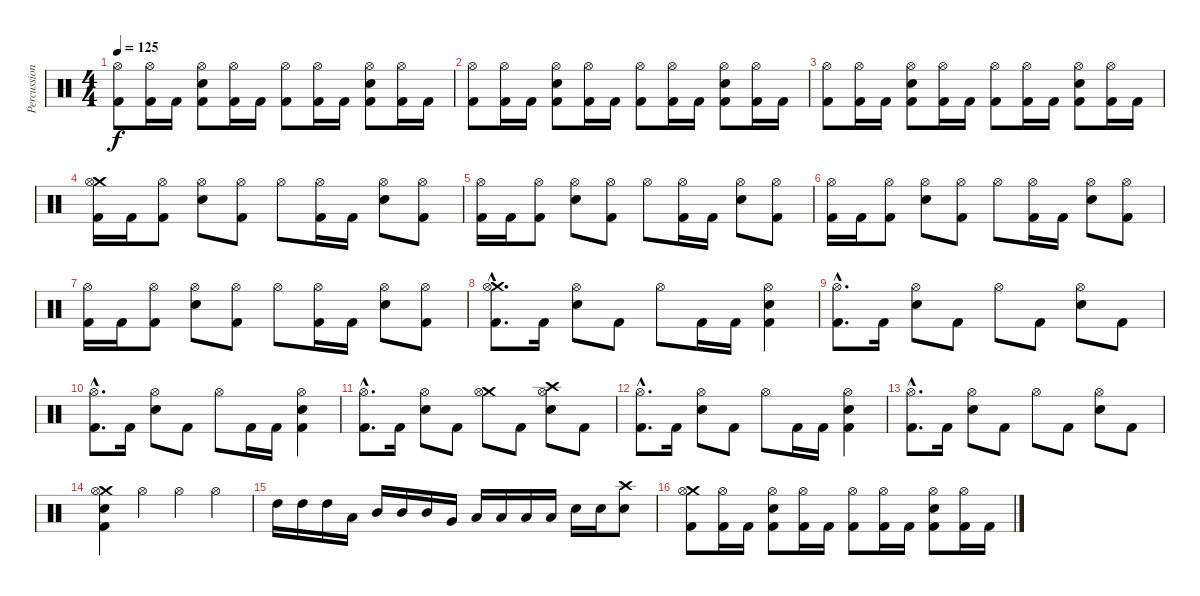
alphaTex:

\track ("Percussion" "Percussion") {instrument percussion}
\staff {score}
\articulation defaults
\ts (4 4)
\tempo 125
\clef neutral
\ks c
("Hi-Hat (open)" "Kick (hit) 2").8{dy f} ("Hi-Hat (open)" "Kick (hit) 2").16 "Kick (hit) 2".16 ("Hi-Hat (open)" "Electric Snare (hit)" "Kick (hit) 2").8 ("Hi-Hat (open)" "Kick (hit) 2").16 "Kick (hit) 2".16 ("Hi-Hat (open)" "Kick (hit) 2").8 ("Hi-Hat (open)" "Kick (hit) 2").16 "Kick (hit) 2".16 ("Hi-Hat (open)" "Electric Snare (hit)" "Kick (hit) 2").8 ("Hi-Hat (open)" "Kick (hit) 2").16 "Kick (hit) 2".16 |
("Hi-Hat (open)" "Kick (hit) 2").8 ("Hi-Hat (open)" "Kick (hit) 2").16 "Kick (hit) 2".16 ("Hi-Hat (open)" "Electric Snare (hit)" "Kick (hit) 2").8 ("Hi-Hat (open)" "Kick (hit) 2").16 "Kick (hit) 2".16 ("Hi-Hat (open)" "Kick (hit) 2").8 ("Hi-Hat (open)" "Kick (hit) 2").16 "Kick (hit) 2".16 ("Hi-Hat (open)" "Electric Snare (hit)" "Kick (hit) 2").8 ("Hi-Hat (open)" "Kick (hit) 2").16 "Kick (hit) 2".16 |
("Hi-Hat (open)" "Kick (hit) 2").8 ("Hi-Hat (open)" "Kick (hit) 2").16 "Kick (hit) 2".16 ("Hi-Hat (open)" "Electric Snare (hit)" "Kick (hit) 2").8 ("Hi-Hat (open)" "Kick (hit) 2").16 "Kick (hit) 2".16 ("Hi-Hat (open)" "Kick (hit) 2").8 ("Hi-Hat (open)" "Kick (hit) 2").16 "Kick (hit) 2".16 ("Hi-Hat (open)" "Electric Snare (hit)" "Kick (hit) 2").8 ("Hi-Hat (open)" "Kick (hit) 2").16 "Kick (hit) 2".16 |
("Crash medium (hit)" "Hi-Hat (open)" "Kick (hit) 2").16 "Kick (hit) 2".16 ("Hi-Hat (open)" "Kick (hit) 2").8 ("Hi-Hat (open)" "Electric Snare (hit)").8 ("Hi-Hat (open)" "Kick (hit) 2").8 "Hi-Hat (open)".8 ("Hi-Hat (open)" "Kick (hit) 2").16 "Kick (hit) 2".16 ("Hi-Hat (open)" "Electric Snare (hit)").8 ("Hi-Hat (open)" "Kick (hit) 2").8 |
("Hi-Hat (open)" "Kick (hit) 2").16 "Kick (hit) 2".16 ("Hi-Hat (open)" "Kick (hit) 2").8 ("Hi-Hat (open)" "Electric Snare (hit)").8 ("Hi-Hat (open)" "Kick (hit) 2").8 "Hi-Hat (open)".8 ("Hi-Hat (open)" "Kick (hit) 2").16 "Kick (hit) 2".16 ("Hi-Hat (open)" "Electric Snare (hit)").8 ("Hi-Hat (open)" "Kick (hit) 2").8 |
("Hi-Hat (open)" "Kick (hit) 2").16 "Kick (hit) 2".16 ("Hi-Hat (open)" "Kick (hit) 2").8 ("Hi-Hat (open)" "Electric Snare (hit)").8 ("Hi-Hat (open)" "Kick (hit) 2").8 "Hi-Hat (open)".8 ("Hi-Hat (open)" "Kick (hit) 2").16 "Kick (hit) 2".16 ("Hi-Hat (open)" "Electric Snare (hit)").8 ("Hi-Hat (open)" "Kick (hit) 2").8 |
("Hi-Hat (open)" "Kick (hit) 2").16 "Kick (hit) 2".16 ("Hi-Hat (open)" "Kick (hit) 2").8 ("Hi-Hat (open)" "Electric Snare (hit)").8 ("Hi-Hat (open)" "Kick (hit) 2").8 "Hi-Hat (open)".8 ("Hi-Hat (open)" "Kick (hit) 2").16 "Kick (hit) 2".16 ("Hi-Hat (open)" "Electric Snare (hit)").8 ("Hi-Hat (open)" "Kick (hit) 2").8 |
("Crash medium (hit)"{hac} "Hi-Hat (open)"{hac} "Kick (hit) 2"{hac}).8{d} "Kick (hit) 2".16 ("Hi-Hat (open)" "Electric Snare (hit)").8 "Kick (hit) 2".8 "Hi-Hat (open)".8 "Kick (hit) 2".16 "Kick (hit) 2".16 ("Hi-Hat (open)" "Electric Snare (hit)" "Kick (hit) 2").4 |
("Hi-Hat (open)"{hac} "Kick (hit) 2"{hac}).8{d} "Kick (hit) 2".16 ("Hi-Hat (open)" "Electric Snare (hit)").8 "Kick (hit) 2".8 "Hi-Hat (open)".8 "Kick (hit) 2".8 ("Hi-Hat (open)" "Electric Snare (hit)").8 "Kick (hit) 2".8 |
("Hi-Hat (open)"{hac} "Kick (hit) 2"{hac}).8{d} "Kick (hit) 2".16 ("Hi-Hat (open)" "Electric Snare (hit)").8 "Kick (hit) 2".8 "Hi-Hat (open)".8 "Kick (hit) 2".16 "Kick (hit) 2".16 ("Hi-Hat (open)" "Electric Snare (hit)" "Kick (hit) 2").4 |
("Hi-Hat (open)"{hac} "Kick (hit) 2"{hac}).8{d} "Kick (hit) 2".16 ("Hi-Hat (open)" "Electric Snare (hit)").8 "Kick (hit) 2".8 ("Crash medium (hit)" "Hi-Hat (open)").8 "Kick (hit) 2".8 ("Crash high (hit)" "Hi-Hat (open)" "Electric Snare (hit)").8 "Kick (hit) 2".8 |
("Hi-Hat (open)"{hac} "Kick (hit) 2"{hac}).8{d} "Kick (hit) 2".16 ("Hi-Hat (open)" "Electric Snare (hit)").8 "Kick (hit) 2".8 "Hi-Hat (open)".8 "Kick (hit) 2".16 "Kick (hit) 2".16 ("Hi-Hat (open)" "Electric Snare (hit)" "Kick (hit) 2").4 |
("Hi-Hat (open)"{hac} "Kick (hit) 2"{hac}).8{d} "Kick (hit) 2".16 ("Hi-Hat (open)" "Electric Snare (hit)").8 "Kick (hit) 2".8 "Hi-Hat (open)".8 "Kick (hit) 2".8 ("Hi-Hat (open)" "Electric Snare (hit)").8 "Kick (hit) 2".8 |
("Crash medium (hit)" "Hi-Hat (open)" "Electric Snare (hit)" "Kick (hit) 2").4 "Hi-Hat (open)".4 "Hi-Hat (open)".4 "Hi-Hat (open)".4 |
"High Tom (hit)".16 "High Tom (hit)".16 "High Tom (hit)".16 "Low Tom (hit)".16 "Mid Tom (hit)".16 "Mid Tom (hit)".16 "Mid Tom (hit)".16 "Very Low Tom (hit)".16 "Low Tom (hit)".16 "Low Tom (hit)".16 "Low Tom (hit)".16 "Low Floor Tom (hit)".16 "Electric Snare (hit)".16 "Electric Snare (hit)".16 ("Crash high (hit)" "Electric Snare (hit)").8 |
("Crash medium (hit)" "Hi-Hat (open)" "Kick (hit) 2").8 ("Hi-Hat (open)" "Kick (hit) 2").16 "Kick (hit) 2".16 ("Hi-Hat (open)" "Electric Snare (hit)" "Kick (hit) 2").8 ("Hi-Hat (open)" "Kick (hit) 2").16 "Kick (hit) 2".16 ("Hi-Hat (open)" "Kick (hit) 2").8 ("Hi-Hat (open)" "Kick (hit) 2").16 "Kick (hit) 2".16 ("Hi-Hat (open)" "Electric Snare (hit)" "Kick (hit) 2").8 ("Hi-Hat (open)" "Kick (hit) 2").16 "Kick (hit) 2".16
